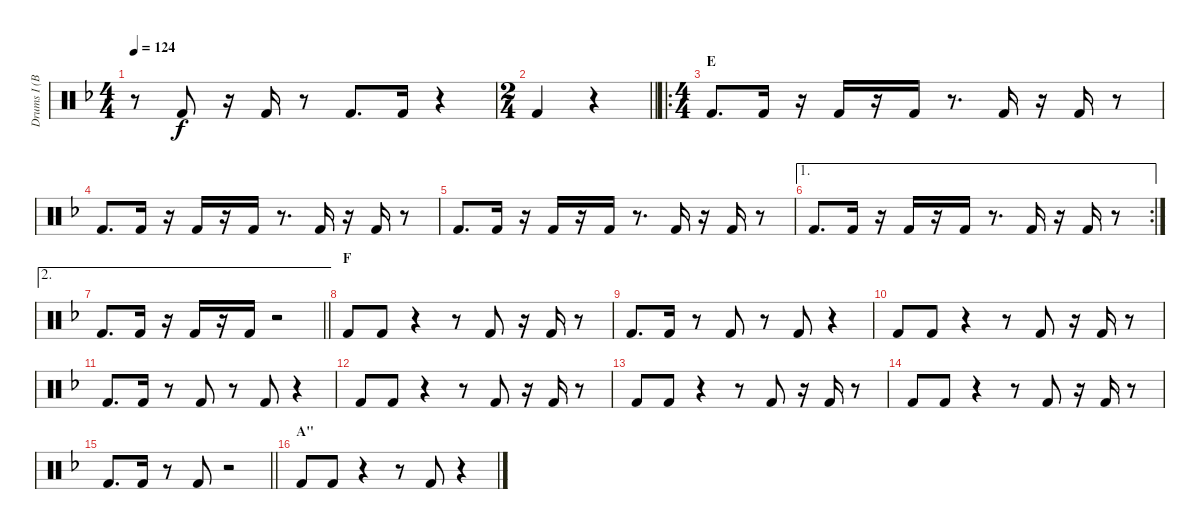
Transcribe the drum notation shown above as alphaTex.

\track ("Drums I (Bass Drums) (RUKA)" "Drums I (B") {instrument percussion}
\staff {score}
\articulation defaults
\ts (4 4)
\tempo 124
\clef neutral
\ks f
r.8{dy f} "Kick (hit) 2".8 r.16 "Kick (hit) 2".16 r.8 "Kick (hit) 2".8{d} "Kick (hit) 2".16 r.4 |
\ts (2 4)
\barLineRight lightlight "Kick (hit) 2".4
r.4 |
\ro
\ts (4 4)
\section ("" "E")
"Kick (hit) 2".8{d} "Kick (hit) 2".16 r.16 "Kick (hit) 2".16 r.16 "Kick (hit) 2".16 r.8{d} "Kick (hit) 2".16 r.16 "Kick (hit) 2".16 r.8 |
"Kick (hit) 2".8{d} "Kick (hit) 2".16 r.16 "Kick (hit) 2".16 r.16 "Kick (hit) 2".16 r.8{d} "Kick (hit) 2".16 r.16 "Kick (hit) 2".16 r.8 |
"Kick (hit) 2".8{d} "Kick (hit) 2".16 r.16 "Kick (hit) 2".16 r.16 "Kick (hit) 2".16 r.8{d} "Kick (hit) 2".16 r.16 "Kick (hit) 2".16 r.8 |
\ae 1
\rc 2 "Kick (hit) 2".8{d} "Kick (hit) 2".16
r.16 "Kick (hit) 2".16 r.16 "Kick (hit) 2".16 r.8{d} "Kick (hit) 2".16 r.16 "Kick (hit) 2".16 r.8 |
\ae 2
\barLineRight lightlight "Kick (hit) 2".8{d} "Kick (hit) 2".16
r.16 "Kick (hit) 2".16 r.16 "Kick (hit) 2".16 r.2 |
\section ("" "F")
"Kick (hit) 2".8 "Kick (hit) 2".8 r.4 r.8 "Kick (hit) 2".8 r.16 "Kick (hit) 2".16 r.8 |
"Kick (hit) 2".8{d} "Kick (hit) 2".16 r.8 "Kick (hit) 2".8 r.8 "Kick (hit) 2".8 r.4 |
"Kick (hit) 2".8 "Kick (hit) 2".8 r.4 r.8 "Kick (hit) 2".8 r.16 "Kick (hit) 2".16 r.8 |
"Kick (hit) 2".8{d} "Kick (hit) 2".16 r.8 "Kick (hit) 2".8 r.8 "Kick (hit) 2".8 r.4 |
"Kick (hit) 2".8 "Kick (hit) 2".8 r.4 r.8 "Kick (hit) 2".8 r.16 "Kick (hit) 2".16 r.8 |
"Kick (hit) 2".8 "Kick (hit) 2".8 r.4 r.8 "Kick (hit) 2".8 r.16 "Kick (hit) 2".16 r.8 |
"Kick (hit) 2".8 "Kick (hit) 2".8 r.4 r.8 "Kick (hit) 2".8 r.16 "Kick (hit) 2".16 r.8 |
\barLineRight lightlight "Kick (hit) 2".8{d} "Kick (hit) 2".16
r.8 "Kick (hit) 2".8 r.2 |
\section ("" "A''")
"Kick (hit) 2".8 "Kick (hit) 2".8 r.4 r.8 "Kick (hit) 2".8 r.4
